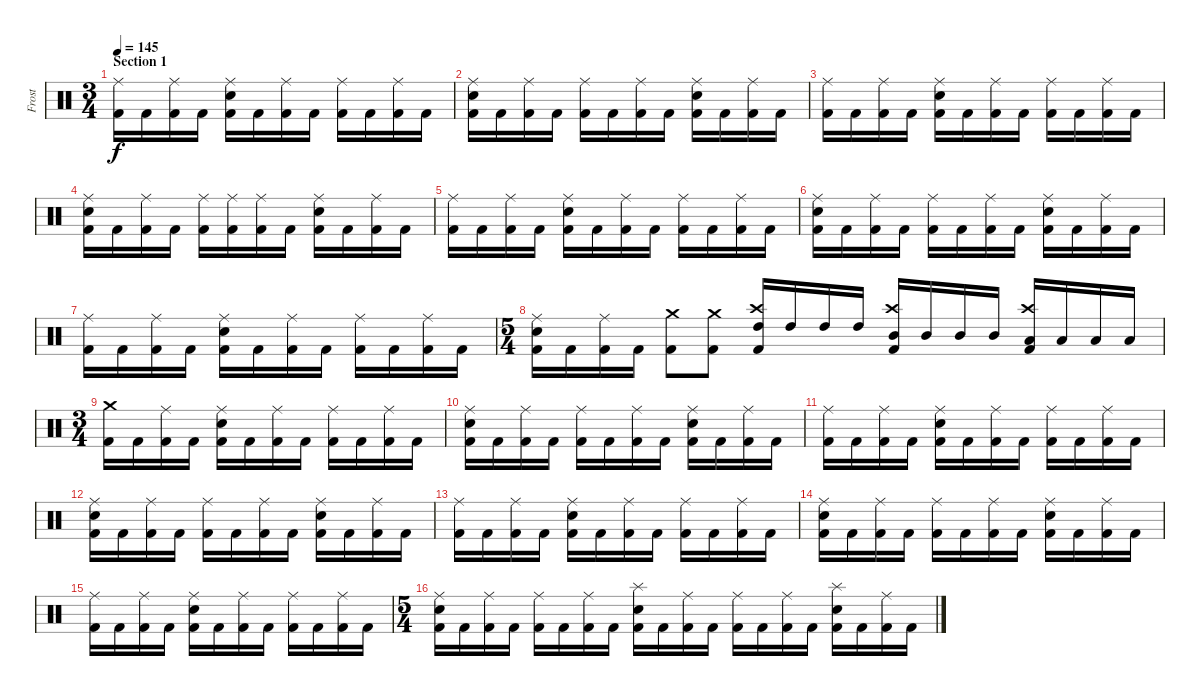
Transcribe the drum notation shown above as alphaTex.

\track ("Frost" "Frost") {instrument percussion}
\staff {score}
\articulation defaults
\ts (3 4)
\section ("" "Section 1")
\tempo 145
\clef neutral
\ks c
("Ride (middle)" "Kick (hit) 2").16{dy f} "Kick (hit) 2".16 ("Ride (middle)" "Kick (hit) 2").16 "Kick (hit) 2".16 ("Ride (middle)" "Electric Snare (hit)" "Kick (hit) 2").16 "Kick (hit) 2".16 ("Ride (middle)" "Kick (hit) 2").16 "Kick (hit) 2".16 ("Ride (middle)" "Kick (hit) 2").16 "Kick (hit) 2".16 ("Ride (middle)" "Kick (hit) 2").16 "Kick (hit) 2".16 |
("Ride (middle)" "Electric Snare (hit)" "Kick (hit) 2").16 "Kick (hit) 2".16 ("Ride (middle)" "Kick (hit) 2").16 "Kick (hit) 2".16 ("Ride (middle)" "Kick (hit) 2").16 "Kick (hit) 2".16 ("Ride (middle)" "Kick (hit) 2").16 "Kick (hit) 2".16 ("Ride (middle)" "Electric Snare (hit)" "Kick (hit) 2").16 "Kick (hit) 2".16 ("Ride (middle)" "Kick (hit) 2").16 "Kick (hit) 2".16 |
("Ride (middle)" "Kick (hit) 2").16 "Kick (hit) 2".16 ("Ride (middle)" "Kick (hit) 2").16 "Kick (hit) 2".16 ("Ride (middle)" "Electric Snare (hit)" "Kick (hit) 2").16 "Kick (hit) 2".16 ("Ride (middle)" "Kick (hit) 2").16 "Kick (hit) 2".16 ("Ride (middle)" "Kick (hit) 2").16 "Kick (hit) 2".16 ("Ride (middle)" "Kick (hit) 2").16 "Kick (hit) 2".16 |
("Ride (middle)" "Electric Snare (hit)" "Kick (hit) 2").16 "Kick (hit) 2".16 ("Ride (middle)" "Kick (hit) 2").16 "Kick (hit) 2".16 ("Ride (middle)" "Kick (hit) 2").16 ("Ride (middle)" "Kick (hit) 2").16 ("Ride (middle)" "Kick (hit) 2").16 "Kick (hit) 2".16 ("Ride (middle)" "Electric Snare (hit)" "Kick (hit) 2").16 "Kick (hit) 2".16 ("Ride (middle)" "Kick (hit) 2").16 "Kick (hit) 2".16 |
("Ride (middle)" "Kick (hit) 2").16 "Kick (hit) 2".16 ("Ride (middle)" "Kick (hit) 2").16 "Kick (hit) 2".16 ("Ride (middle)" "Electric Snare (hit)" "Kick (hit) 2").16 "Kick (hit) 2".16 ("Ride (middle)" "Kick (hit) 2").16 "Kick (hit) 2".16 ("Ride (middle)" "Kick (hit) 2").16 "Kick (hit) 2".16 ("Ride (middle)" "Kick (hit) 2").16 "Kick (hit) 2".16 |
("Ride (middle)" "Electric Snare (hit)" "Kick (hit) 2").16 "Kick (hit) 2".16 ("Ride (middle)" "Kick (hit) 2").16 "Kick (hit) 2".16 ("Ride (middle)" "Kick (hit) 2").16 "Kick (hit) 2".16 ("Ride (middle)" "Kick (hit) 2").16 "Kick (hit) 2".16 ("Ride (middle)" "Electric Snare (hit)" "Kick (hit) 2").16 "Kick (hit) 2".16 ("Ride (middle)" "Kick (hit) 2").16 "Kick (hit) 2".16 |
("Ride (middle)" "Kick (hit) 2").16 "Kick (hit) 2".16 ("Ride (middle)" "Kick (hit) 2").16 "Kick (hit) 2".16 ("Ride (middle)" "Electric Snare (hit)" "Kick (hit) 2").16 "Kick (hit) 2".16 ("Ride (middle)" "Kick (hit) 2").16 "Kick (hit) 2".16 ("Ride (middle)" "Kick (hit) 2").16 "Kick (hit) 2".16 ("Ride (middle)" "Kick (hit) 2").16 "Kick (hit) 2".16 |
\ts (5 4)
("Ride (middle)" "Electric Snare (hit)" "Kick (hit) 2").16 "Kick (hit) 2".16 ("Ride (middle)" "Kick (hit) 2").16 "Kick (hit) 2".16 ("Crash medium (hit)" "Kick (hit) 2").8 ("Crash medium (hit)" "Kick (hit) 2").8 ("Crash high (hit)" "High Tom (hit)" "Kick (hit) 2").16 "High Tom (hit)".16 "High Tom (hit)".16 "High Tom (hit)".16 ("Crash high (hit)" "Mid Tom (hit)" "Kick (hit) 2").16 "Mid Tom (hit)".16 "Mid Tom (hit)".16 "Mid Tom (hit)".16 ("Crash high (hit)" "Low Tom (hit)" "Kick (hit) 2").16 "Low Tom (hit)".16 "Low Tom (hit)".16 "Low Tom (hit)".16 |
\ts (3 4)
("Crash medium (hit)" "Kick (hit) 2").16 "Kick (hit) 2".16 ("Ride (middle)" "Kick (hit) 2").16 "Kick (hit) 2".16 ("Ride (middle)" "Electric Snare (hit)" "Kick (hit) 2").16 "Kick (hit) 2".16 ("Ride (middle)" "Kick (hit) 2").16 "Kick (hit) 2".16 ("Ride (middle)" "Kick (hit) 2").16 "Kick (hit) 2".16 ("Ride (middle)" "Kick (hit) 2").16 "Kick (hit) 2".16 |
("Ride (middle)" "Electric Snare (hit)" "Kick (hit) 2").16 "Kick (hit) 2".16 ("Ride (middle)" "Kick (hit) 2").16 "Kick (hit) 2".16 ("Ride (middle)" "Kick (hit) 2").16 "Kick (hit) 2".16 ("Ride (middle)" "Kick (hit) 2").16 "Kick (hit) 2".16 ("Ride (middle)" "Electric Snare (hit)" "Kick (hit) 2").16 "Kick (hit) 2".16 ("Ride (middle)" "Kick (hit) 2").16 "Kick (hit) 2".16 |
("Ride (middle)" "Kick (hit) 2").16 "Kick (hit) 2".16 ("Ride (middle)" "Kick (hit) 2").16 "Kick (hit) 2".16 ("Ride (middle)" "Electric Snare (hit)" "Kick (hit) 2").16 "Kick (hit) 2".16 ("Ride (middle)" "Kick (hit) 2").16 "Kick (hit) 2".16 ("Ride (middle)" "Kick (hit) 2").16 "Kick (hit) 2".16 ("Ride (middle)" "Kick (hit) 2").16 "Kick (hit) 2".16 |
("Ride (middle)" "Electric Snare (hit)" "Kick (hit) 2").16 "Kick (hit) 2".16 ("Ride (middle)" "Kick (hit) 2").16 "Kick (hit) 2".16 ("Ride (middle)" "Kick (hit) 2").16 "Kick (hit) 2".16 ("Ride (middle)" "Kick (hit) 2").16 "Kick (hit) 2".16 ("Ride (middle)" "Electric Snare (hit)" "Kick (hit) 2").16 "Kick (hit) 2".16 ("Ride (middle)" "Kick (hit) 2").16 "Kick (hit) 2".16 |
("Ride (middle)" "Kick (hit) 2").16 "Kick (hit) 2".16 ("Ride (middle)" "Kick (hit) 2").16 "Kick (hit) 2".16 ("Ride (middle)" "Electric Snare (hit)" "Kick (hit) 2").16 "Kick (hit) 2".16 ("Ride (middle)" "Kick (hit) 2").16 "Kick (hit) 2".16 ("Ride (middle)" "Kick (hit) 2").16 "Kick (hit) 2".16 ("Ride (middle)" "Kick (hit) 2").16 "Kick (hit) 2".16 |
("Ride (middle)" "Electric Snare (hit)" "Kick (hit) 2").16 "Kick (hit) 2".16 ("Ride (middle)" "Kick (hit) 2").16 "Kick (hit) 2".16 ("Ride (middle)" "Kick (hit) 2").16 "Kick (hit) 2".16 ("Ride (middle)" "Kick (hit) 2").16 "Kick (hit) 2".16 ("Ride (middle)" "Electric Snare (hit)" "Kick (hit) 2").16 "Kick (hit) 2".16 ("Ride (middle)" "Kick (hit) 2").16 "Kick (hit) 2".16 |
("Ride (middle)" "Kick (hit) 2").16 "Kick (hit) 2".16 ("Ride (middle)" "Kick (hit) 2").16 "Kick (hit) 2".16 ("Ride (middle)" "Electric Snare (hit)" "Kick (hit) 2").16 "Kick (hit) 2".16 ("Ride (middle)" "Kick (hit) 2").16 "Kick (hit) 2".16 ("Ride (middle)" "Kick (hit) 2").16 "Kick (hit) 2".16 ("Ride (middle)" "Kick (hit) 2").16 "Kick (hit) 2".16 |
\ts (5 4)
("Ride (middle)" "Electric Snare (hit)" "Kick (hit) 2").16 "Kick (hit) 2".16 ("Ride (middle)" "Kick (hit) 2").16 "Kick (hit) 2".16 ("Ride (middle)" "Kick (hit) 2").16 "Kick (hit) 2".16 ("Ride (middle)" "Kick (hit) 2").16 "Kick (hit) 2".16 ("Splash (hit)" "Electric Snare (hit)" "Kick (hit) 2").16 "Kick (hit) 2".16 ("Ride (middle)" "Kick (hit) 2").16 "Kick (hit) 2".16 ("Ride (middle)" "Kick (hit) 2").16 "Kick (hit) 2".16 ("Ride (middle)" "Kick (hit) 2").16 "Kick (hit) 2".16 ("Splash (hit)" "Electric Snare (hit)" "Kick (hit) 2").16 "Kick (hit) 2".16 ("Ride (middle)" "Kick (hit) 2").16 "Kick (hit) 2".16
